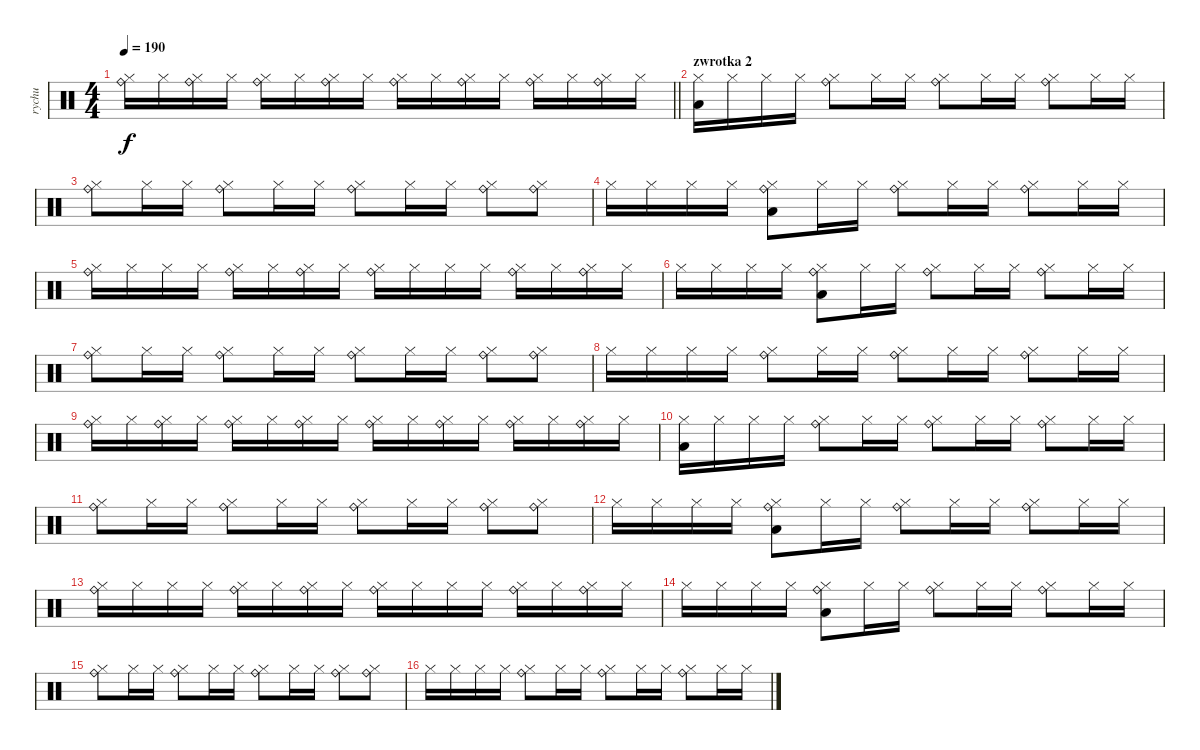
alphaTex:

\track ("rychu" "rychu") {instrument percussion}
\staff {score}
\articulation defaults
\ts (4 4)
\tempo 190
\clef neutral
\barLineRight lightlight
\ks c
("Ride (bell)" "Hi-Hat (closed)").16{dy f} "Hi-Hat (closed)".16 ("Ride (bell)" "Hi-Hat (closed)").16 "Hi-Hat (closed)".16 ("Ride (bell)" "Hi-Hat (closed)").16 "Hi-Hat (closed)".16 ("Ride (bell)" "Hi-Hat (closed)").16 "Hi-Hat (closed)".16 ("Ride (bell)" "Hi-Hat (closed)").16 "Hi-Hat (closed)".16 ("Ride (bell)" "Hi-Hat (closed)").16 "Hi-Hat (closed)".16 ("Ride (bell)" "Hi-Hat (closed)").16 "Hi-Hat (closed)".16 ("Ride (bell)" "Hi-Hat (closed)").16 "Hi-Hat (closed)".16 |
\section ("" "zwrotka 2")
("Low Tom (hit)" "Hi-Hat (closed)").16 "Hi-Hat (closed)".16 "Hi-Hat (closed)".16 "Hi-Hat (closed)".16 ("Ride (bell)" "Hi-Hat (closed)").8 "Hi-Hat (closed)".16 "Hi-Hat (closed)".16 ("Ride (bell)" "Hi-Hat (closed)").8 "Hi-Hat (closed)".16 "Hi-Hat (closed)".16 ("Ride (bell)" "Hi-Hat (closed)").8 "Hi-Hat (closed)".16 "Hi-Hat (closed)".16 |
("Ride (bell)" "Hi-Hat (closed)").8 "Hi-Hat (closed)".16 "Hi-Hat (closed)".16 ("Ride (bell)" "Hi-Hat (closed)").8 "Hi-Hat (closed)".16 "Hi-Hat (closed)".16 ("Ride (bell)" "Hi-Hat (closed)").8 "Hi-Hat (closed)".16 "Hi-Hat (closed)".16 ("Ride (bell)" "Hi-Hat (closed)").8 ("Ride (bell)" "Hi-Hat (closed)").8 |
"Hi-Hat (closed)".16 "Hi-Hat (closed)".16 "Hi-Hat (closed)".16 "Hi-Hat (closed)".16 ("Low Tom (hit)" "Ride (bell)" "Hi-Hat (closed)").8 "Hi-Hat (closed)".16 "Hi-Hat (closed)".16 ("Ride (bell)" "Hi-Hat (closed)").8 "Hi-Hat (closed)".16 "Hi-Hat (closed)".16 ("Ride (bell)" "Hi-Hat (closed)").8 "Hi-Hat (closed)".16 "Hi-Hat (closed)".16 |
("Ride (bell)" "Hi-Hat (closed)").16 "Hi-Hat (closed)".16 "Hi-Hat (closed)".16 "Hi-Hat (closed)".16 ("Ride (bell)" "Hi-Hat (closed)").16 "Hi-Hat (closed)".16 ("Ride (bell)" "Hi-Hat (closed)").16 "Hi-Hat (closed)".16 ("Ride (bell)" "Hi-Hat (closed)").16 "Hi-Hat (closed)".16 "Hi-Hat (closed)".16 "Hi-Hat (closed)".16 ("Ride (bell)" "Hi-Hat (closed)").16 "Hi-Hat (closed)".16 ("Ride (bell)" "Hi-Hat (closed)").16 "Hi-Hat (closed)".16 |
"Hi-Hat (closed)".16 "Hi-Hat (closed)".16 "Hi-Hat (closed)".16 "Hi-Hat (closed)".16 ("Low Tom (hit)" "Ride (bell)" "Hi-Hat (closed)").8 "Hi-Hat (closed)".16 "Hi-Hat (closed)".16 ("Ride (bell)" "Hi-Hat (closed)").8 "Hi-Hat (closed)".16 "Hi-Hat (closed)".16 ("Ride (bell)" "Hi-Hat (closed)").8 "Hi-Hat (closed)".16 "Hi-Hat (closed)".16 |
("Ride (bell)" "Hi-Hat (closed)").8 "Hi-Hat (closed)".16 "Hi-Hat (closed)".16 ("Ride (bell)" "Hi-Hat (closed)").8 "Hi-Hat (closed)".16 "Hi-Hat (closed)".16 ("Ride (bell)" "Hi-Hat (closed)").8 "Hi-Hat (closed)".16 "Hi-Hat (closed)".16 ("Ride (bell)" "Hi-Hat (closed)").8 ("Ride (bell)" "Hi-Hat (closed)").8 |
"Hi-Hat (closed)".16 "Hi-Hat (closed)".16 "Hi-Hat (closed)".16 "Hi-Hat (closed)".16 ("Ride (bell)" "Hi-Hat (closed)").8 "Hi-Hat (closed)".16 "Hi-Hat (closed)".16 ("Ride (bell)" "Hi-Hat (closed)").8 "Hi-Hat (closed)".16 "Hi-Hat (closed)".16 ("Ride (bell)" "Hi-Hat (closed)").8 "Hi-Hat (closed)".16 "Hi-Hat (closed)".16 |
("Ride (bell)" "Hi-Hat (closed)").16 "Hi-Hat (closed)".16 ("Ride (bell)" "Hi-Hat (closed)").16 "Hi-Hat (closed)".16 ("Ride (bell)" "Hi-Hat (closed)").16 "Hi-Hat (closed)".16 ("Ride (bell)" "Hi-Hat (closed)").16 "Hi-Hat (closed)".16 ("Ride (bell)" "Hi-Hat (closed)").16 "Hi-Hat (closed)".16 ("Ride (bell)" "Hi-Hat (closed)").16 "Hi-Hat (closed)".16 ("Ride (bell)" "Hi-Hat (closed)").16 "Hi-Hat (closed)".16 ("Ride (bell)" "Hi-Hat (closed)").16 "Hi-Hat (closed)".16 |
("Low Tom (hit)" "Hi-Hat (closed)").16 "Hi-Hat (closed)".16 "Hi-Hat (closed)".16 "Hi-Hat (closed)".16 ("Ride (bell)" "Hi-Hat (closed)").8 "Hi-Hat (closed)".16 "Hi-Hat (closed)".16 ("Ride (bell)" "Hi-Hat (closed)").8 "Hi-Hat (closed)".16 "Hi-Hat (closed)".16 ("Ride (bell)" "Hi-Hat (closed)").8 "Hi-Hat (closed)".16 "Hi-Hat (closed)".16 |
("Ride (bell)" "Hi-Hat (closed)").8 "Hi-Hat (closed)".16 "Hi-Hat (closed)".16 ("Ride (bell)" "Hi-Hat (closed)").8 "Hi-Hat (closed)".16 "Hi-Hat (closed)".16 ("Ride (bell)" "Hi-Hat (closed)").8 "Hi-Hat (closed)".16 "Hi-Hat (closed)".16 ("Ride (bell)" "Hi-Hat (closed)").8 ("Ride (bell)" "Hi-Hat (closed)").8 |
"Hi-Hat (closed)".16 "Hi-Hat (closed)".16 "Hi-Hat (closed)".16 "Hi-Hat (closed)".16 ("Low Tom (hit)" "Ride (bell)" "Hi-Hat (closed)").8 "Hi-Hat (closed)".16 "Hi-Hat (closed)".16 ("Ride (bell)" "Hi-Hat (closed)").8 "Hi-Hat (closed)".16 "Hi-Hat (closed)".16 ("Ride (bell)" "Hi-Hat (closed)").8 "Hi-Hat (closed)".16 "Hi-Hat (closed)".16 |
("Ride (bell)" "Hi-Hat (closed)").16 "Hi-Hat (closed)".16 "Hi-Hat (closed)".16 "Hi-Hat (closed)".16 ("Ride (bell)" "Hi-Hat (closed)").16 "Hi-Hat (closed)".16 ("Ride (bell)" "Hi-Hat (closed)").16 "Hi-Hat (closed)".16 ("Ride (bell)" "Hi-Hat (closed)").16 "Hi-Hat (closed)".16 "Hi-Hat (closed)".16 "Hi-Hat (closed)".16 ("Ride (bell)" "Hi-Hat (closed)").16 "Hi-Hat (closed)".16 ("Ride (bell)" "Hi-Hat (closed)").16 "Hi-Hat (closed)".16 |
"Hi-Hat (closed)".16 "Hi-Hat (closed)".16 "Hi-Hat (closed)".16 "Hi-Hat (closed)".16 ("Low Tom (hit)" "Ride (bell)" "Hi-Hat (closed)").8 "Hi-Hat (closed)".16 "Hi-Hat (closed)".16 ("Ride (bell)" "Hi-Hat (closed)").8 "Hi-Hat (closed)".16 "Hi-Hat (closed)".16 ("Ride (bell)" "Hi-Hat (closed)").8 "Hi-Hat (closed)".16 "Hi-Hat (closed)".16 |
("Ride (bell)" "Hi-Hat (closed)").8 "Hi-Hat (closed)".16 "Hi-Hat (closed)".16 ("Ride (bell)" "Hi-Hat (closed)").8 "Hi-Hat (closed)".16 "Hi-Hat (closed)".16 ("Ride (bell)" "Hi-Hat (closed)").8 "Hi-Hat (closed)".16 "Hi-Hat (closed)".16 ("Ride (bell)" "Hi-Hat (closed)").8 ("Ride (bell)" "Hi-Hat (closed)").8 |
"Hi-Hat (closed)".16 "Hi-Hat (closed)".16 "Hi-Hat (closed)".16 "Hi-Hat (closed)".16 ("Ride (bell)" "Hi-Hat (closed)").8 "Hi-Hat (closed)".16 "Hi-Hat (closed)".16 ("Ride (bell)" "Hi-Hat (closed)").8 "Hi-Hat (closed)".16 "Hi-Hat (closed)".16 ("Ride (bell)" "Hi-Hat (closed)").8 "Hi-Hat (closed)".16 "Hi-Hat (closed)".16
